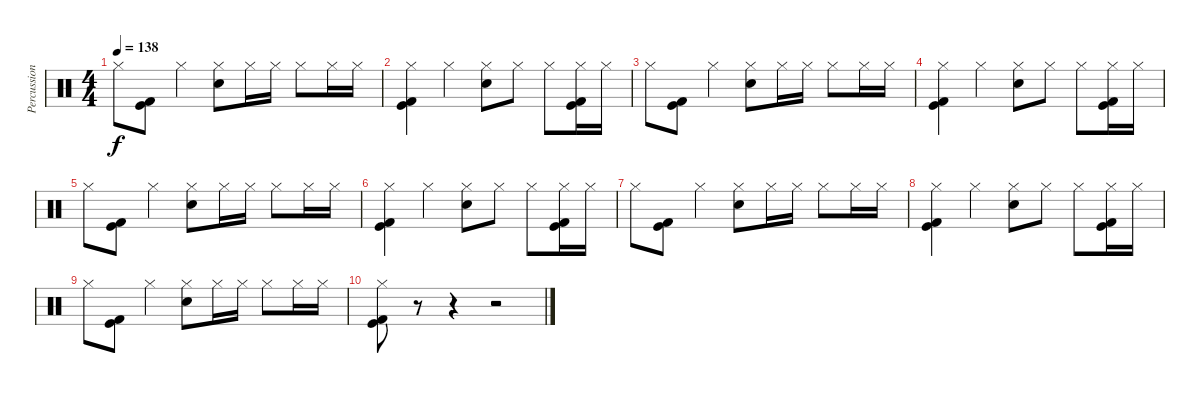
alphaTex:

\track ("Percussion" "Percussion") {instrument percussion}
\staff {score}
\articulation defaults
\ts (4 4)
\tempo 138
\clef neutral
\ks c "Hi-Hat (closed)".8{dy f}
("Kick (hit)" "Kick (hit) 2").8 "Hi-Hat (closed)".4 ("Hi-Hat (closed)" "Electric Snare (hit)").8 "Hi-Hat (closed)".16 "Hi-Hat (closed)".16 "Hi-Hat (closed)".8 "Hi-Hat (closed)".16 "Hi-Hat (closed)".16 |
("Hi-Hat (closed)" "Kick (hit)" "Kick (hit) 2").4 "Hi-Hat (closed)".4 ("Hi-Hat (closed)" "Electric Snare (hit)").8 "Hi-Hat (closed)".8 "Hi-Hat (closed)".8 ("Hi-Hat (closed)" "Kick (hit)" "Kick (hit) 2").16 "Hi-Hat (closed)".16 |
"Hi-Hat (closed)".8 ("Kick (hit)" "Kick (hit) 2").8 "Hi-Hat (closed)".4 ("Hi-Hat (closed)" "Electric Snare (hit)").8 "Hi-Hat (closed)".16 "Hi-Hat (closed)".16 "Hi-Hat (closed)".8 "Hi-Hat (closed)".16 "Hi-Hat (closed)".16 |
("Hi-Hat (closed)" "Kick (hit)" "Kick (hit) 2").4 "Hi-Hat (closed)".4 ("Hi-Hat (closed)" "Electric Snare (hit)").8 "Hi-Hat (closed)".8 "Hi-Hat (closed)".8 ("Hi-Hat (closed)" "Kick (hit)" "Kick (hit) 2").16 "Hi-Hat (closed)".16 |
"Hi-Hat (closed)".8 ("Kick (hit)" "Kick (hit) 2").8 "Hi-Hat (closed)".4 ("Hi-Hat (closed)" "Electric Snare (hit)").8 "Hi-Hat (closed)".16 "Hi-Hat (closed)".16 "Hi-Hat (closed)".8 "Hi-Hat (closed)".16 "Hi-Hat (closed)".16 |
("Hi-Hat (closed)" "Kick (hit)" "Kick (hit) 2").4 "Hi-Hat (closed)".4 ("Hi-Hat (closed)" "Electric Snare (hit)").8 "Hi-Hat (closed)".8 "Hi-Hat (closed)".8 ("Hi-Hat (closed)" "Kick (hit)" "Kick (hit) 2").16 "Hi-Hat (closed)".16 |
"Hi-Hat (closed)".8 ("Kick (hit)" "Kick (hit) 2").8 "Hi-Hat (closed)".4 ("Hi-Hat (closed)" "Electric Snare (hit)").8 "Hi-Hat (closed)".16 "Hi-Hat (closed)".16 "Hi-Hat (closed)".8 "Hi-Hat (closed)".16 "Hi-Hat (closed)".16 |
("Hi-Hat (closed)" "Kick (hit)" "Kick (hit) 2").4 "Hi-Hat (closed)".4 ("Hi-Hat (closed)" "Electric Snare (hit)").8 "Hi-Hat (closed)".8 "Hi-Hat (closed)".8 ("Hi-Hat (closed)" "Kick (hit)" "Kick (hit) 2").16 "Hi-Hat (closed)".16 |
"Hi-Hat (closed)".8 ("Kick (hit)" "Kick (hit) 2").8 "Hi-Hat (closed)".4 ("Hi-Hat (closed)" "Electric Snare (hit)").8 "Hi-Hat (closed)".16 "Hi-Hat (closed)".16 "Hi-Hat (closed)".8 "Hi-Hat (closed)".16 "Hi-Hat (closed)".16 |
("Hi-Hat (closed)" "Kick (hit)" "Kick (hit) 2").8 r.8 r.4 r.2
